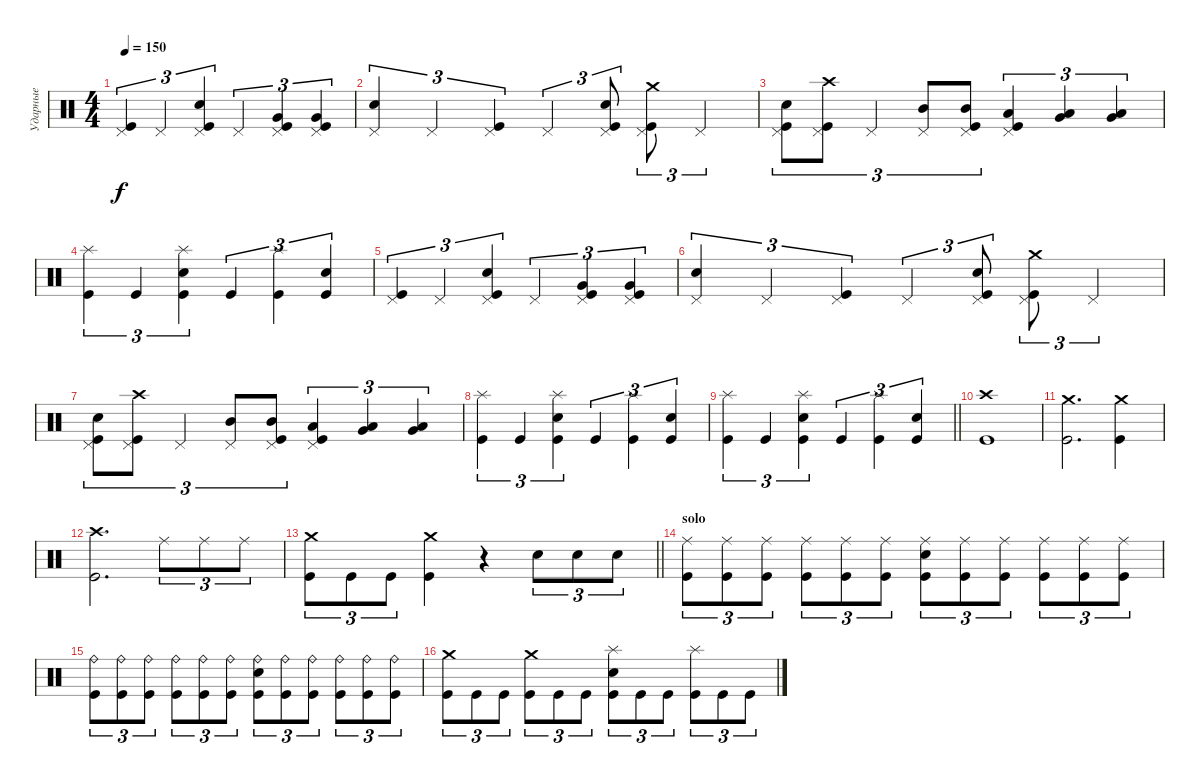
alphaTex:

\track ("Ударные" "Ударные") {instrument percussion}
\staff {score}
\articulation defaults
\ts (4 4)
\tempo 150
\clef neutral
\ks c
("Kick (hit)" "Pedal Hi-Hat (hit)").4{tu (3 2) dy f} "Pedal Hi-Hat (hit)".4{tu (3 2)} ("Kick (hit)" "Electric Snare (hit)" "Pedal Hi-Hat (hit)").4{tu (3 2)} "Pedal Hi-Hat (hit)".4{tu (3 2)} ("Kick (hit)" "Very Low Tom (hit)" "Pedal Hi-Hat (hit)").4{tu (3 2)} ("Kick (hit)" "Very Low Tom (hit)" "Pedal Hi-Hat (hit)").4{tu (3 2)} |
("Electric Snare (hit)" "Pedal Hi-Hat (hit)").4{tu (3 2)} "Pedal Hi-Hat (hit)".4{tu (3 2)} ("Kick (hit)" "Pedal Hi-Hat (hit)").4{tu (3 2)} "Pedal Hi-Hat (hit)".4{tu (3 2)} ("Kick (hit)" "Electric Snare (hit)" "Pedal Hi-Hat (hit)").8{tu (3 2)} ("Kick (hit)" "Crash medium (hit)" "Pedal Hi-Hat (hit)").8{tu (3 2)} "Pedal Hi-Hat (hit)".4{tu (3 2)} |
("Kick (hit)" "Electric Snare (hit)" "Pedal Hi-Hat (hit)").8{tu (3 2)} ("Kick (hit)" "Crash high (hit)" "Pedal Hi-Hat (hit)").8{tu (3 2)} "Pedal Hi-Hat (hit)".4{tu (3 2)} ("Mid Tom (hit)" "Pedal Hi-Hat (hit)").8{tu (3 2)} ("Mid Tom (hit)" "Kick (hit)" "Pedal Hi-Hat (hit)").8{tu (3 2)} ("Kick (hit)" "Low Tom (hit)" "Pedal Hi-Hat (hit)").4{tu (3 2)} ("Low Floor Tom (hit)" "Very Low Tom (hit)").4{tu (3 2)} ("Low Floor Tom (hit)" "Very Low Tom (hit)").4{tu (3 2)} |
("Splash (hit)" "Kick (hit)").4{tu (3 2)} "Kick (hit)".4{tu (3 2)} ("Electric Snare (hit)" "Kick (hit)" "Splash (hit)").4{tu (3 2)} "Kick (hit)".4{tu (3 2)} ("Splash (hit)" "Kick (hit)").4{tu (3 2)} ("Kick (hit)" "Electric Snare (hit)").4{tu (3 2)} |
("Kick (hit)" "Pedal Hi-Hat (hit)").4{tu (3 2)} "Pedal Hi-Hat (hit)".4{tu (3 2)} ("Kick (hit)" "Electric Snare (hit)" "Pedal Hi-Hat (hit)").4{tu (3 2)} "Pedal Hi-Hat (hit)".4{tu (3 2)} ("Kick (hit)" "Very Low Tom (hit)" "Pedal Hi-Hat (hit)").4{tu (3 2)} ("Kick (hit)" "Very Low Tom (hit)" "Pedal Hi-Hat (hit)").4{tu (3 2)} |
("Electric Snare (hit)" "Pedal Hi-Hat (hit)").4{tu (3 2)} "Pedal Hi-Hat (hit)".4{tu (3 2)} ("Kick (hit)" "Pedal Hi-Hat (hit)").4{tu (3 2)} "Pedal Hi-Hat (hit)".4{tu (3 2)} ("Kick (hit)" "Electric Snare (hit)" "Pedal Hi-Hat (hit)").8{tu (3 2)} ("Kick (hit)" "Crash medium (hit)" "Pedal Hi-Hat (hit)").8{tu (3 2)} "Pedal Hi-Hat (hit)".4{tu (3 2)} |
("Kick (hit)" "Electric Snare (hit)" "Pedal Hi-Hat (hit)").8{tu (3 2)} ("Kick (hit)" "Crash high (hit)" "Pedal Hi-Hat (hit)").8{tu (3 2)} "Pedal Hi-Hat (hit)".4{tu (3 2)} ("Mid Tom (hit)" "Pedal Hi-Hat (hit)").8{tu (3 2)} ("Mid Tom (hit)" "Kick (hit)" "Pedal Hi-Hat (hit)").8{tu (3 2)} ("Kick (hit)" "Low Tom (hit)" "Pedal Hi-Hat (hit)").4{tu (3 2)} ("Low Floor Tom (hit)" "Very Low Tom (hit)").4{tu (3 2)} ("Low Floor Tom (hit)" "Very Low Tom (hit)").4{tu (3 2)} |
("Splash (hit)" "Kick (hit)").4{tu (3 2)} "Kick (hit)".4{tu (3 2)} ("Electric Snare (hit)" "Kick (hit)" "Splash (hit)").4{tu (3 2)} "Kick (hit)".4{tu (3 2)} ("Splash (hit)" "Kick (hit)").4{tu (3 2)} ("Kick (hit)" "Electric Snare (hit)").4{tu (3 2)} |
\barLineRight lightlight
("Splash (hit)" "Kick (hit)").4{tu (3 2)} "Kick (hit)".4{tu (3 2)} ("Electric Snare (hit)" "Kick (hit)" "Splash (hit)").4{tu (3 2)} "Kick (hit)".4{tu (3 2)} ("Splash (hit)" "Kick (hit)").4{tu (3 2)} ("Kick (hit)" "Electric Snare (hit)").4{tu (3 2)} |
\section ("" " ")
("Crash high (hit)" "Kick (hit)").1 |
("Crash medium (hit)" "Kick (hit)").2{d} ("Crash medium (hit)" "Kick (hit)").4 |
("Crash high (hit)" "Kick (hit)").2{d} "Ride (middle)".8{tu (3 2)} "Ride (middle)".8{tu (3 2)} "Ride (middle)".8{tu (3 2)} |
\barLineRight lightlight
("Crash medium (hit)" "Kick (hit)").8{tu (3 2)} "Kick (hit)".8{tu (3 2)} "Kick (hit)".8{tu (3 2)} ("Crash medium (hit)" "Kick (hit)").4 r.4 "Electric Snare (hit)".8{tu (3 2)} "Electric Snare (hit)".8{tu (3 2)} "Electric Snare (hit)".8{tu (3 2)} |
\section ("" "solo")
("Ride (middle)" "Kick (hit)").8{tu (3 2)} ("Ride (middle)" "Kick (hit)").8{tu (3 2)} ("Ride (middle)" "Kick (hit)").8{tu (3 2)} ("Ride (middle)" "Kick (hit)").8{tu (3 2)} ("Ride (middle)" "Kick (hit)").8{tu (3 2)} ("Ride (middle)" "Kick (hit)").8{tu (3 2)} ("Ride (middle)" "Electric Snare (hit)" "Kick (hit)").8{tu (3 2)} ("Ride (middle)" "Kick (hit)").8{tu (3 2)} ("Ride (middle)" "Kick (hit)").8{tu (3 2)} ("Ride (middle)" "Kick (hit)").8{tu (3 2)} ("Ride (middle)" "Kick (hit)").8{tu (3 2)} ("Ride (middle)" "Kick (hit)").8{tu (3 2)} |
("Ride (bell)" "Kick (hit)").8{tu (3 2)} ("Ride (bell)" "Kick (hit)").8{tu (3 2)} ("Ride (bell)" "Kick (hit)").8{tu (3 2)} ("Ride (bell)" "Kick (hit)").8{tu (3 2)} ("Ride (bell)" "Kick (hit)").8{tu (3 2)} ("Ride (bell)" "Kick (hit)").8{tu (3 2)} ("Ride (bell)" "Electric Snare (hit)" "Kick (hit)").8{tu (3 2)} ("Ride (bell)" "Kick (hit)").8{tu (3 2)} ("Ride (bell)" "Kick (hit)").8{tu (3 2)} ("Ride (bell)" "Kick (hit)").8{tu (3 2)} ("Ride (bell)" "Kick (hit)").8{tu (3 2)} ("Ride (bell)" "Kick (hit)").8{tu (3 2)} |
("Crash medium (hit)" "Kick (hit)").8{tu (3 2)} "Kick (hit)".8{tu (3 2)} "Kick (hit)".8{tu (3 2)} ("Crash medium (hit)" "Kick (hit)").8{tu (3 2)} "Kick (hit)".8{tu (3 2)} "Kick (hit)".8{tu (3 2)} ("Splash (hit)" "Electric Snare (hit)" "Kick (hit)").8{tu (3 2)} "Kick (hit)".8{tu (3 2)} "Kick (hit)".8{tu (3 2)} ("Splash (hit)" "Kick (hit)").8{tu (3 2)} "Kick (hit)".8{tu (3 2)} "Kick (hit)".8{tu (3 2)}
